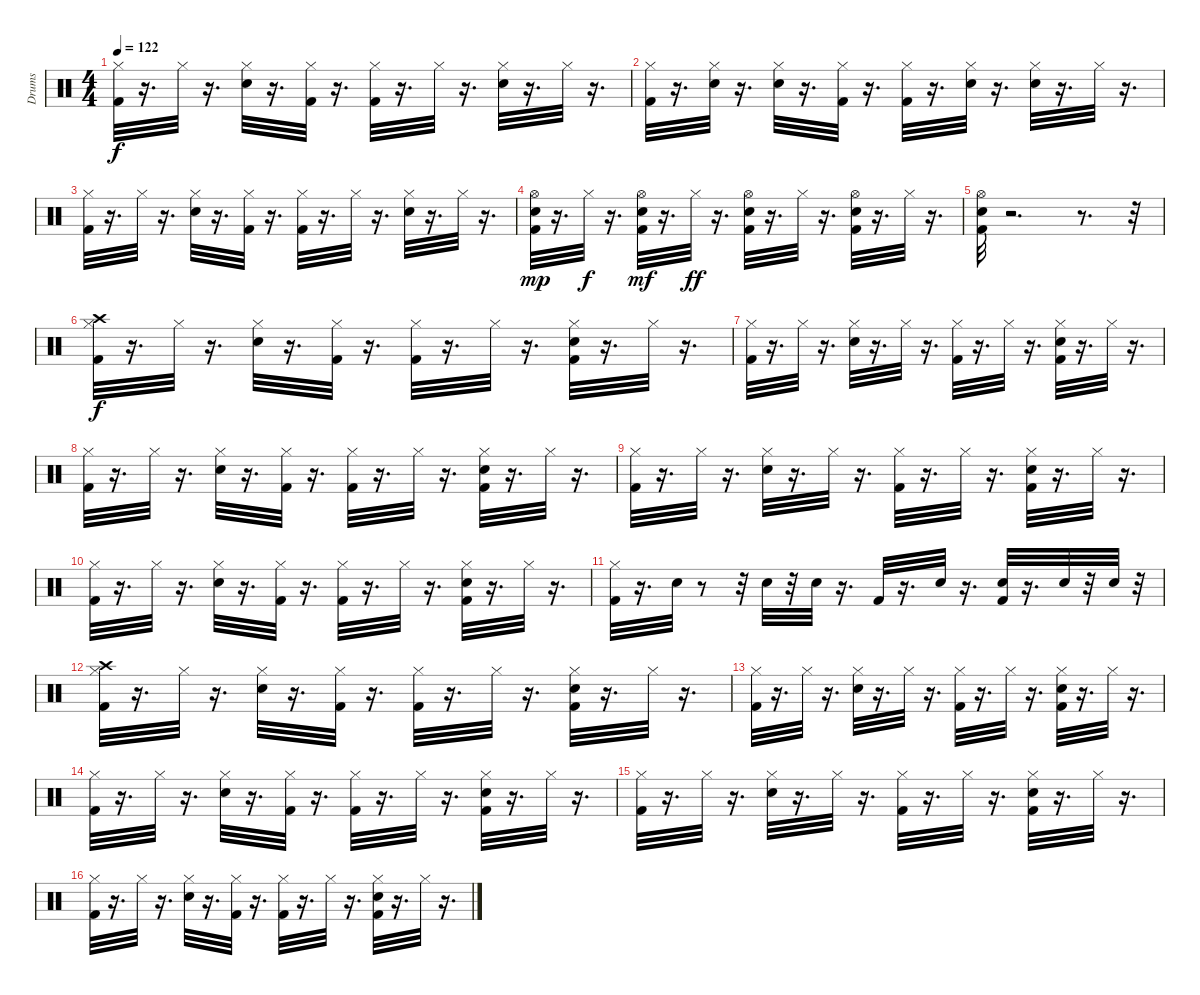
\track ("Drums" "Drums") {instrument percussion}
\staff {score}
\articulation defaults
\ts (4 4)
\tempo 122
\clef neutral
\ks c
("Kick (hit) 2" "Hi-Hat (closed)").32{dy f} r.16{d} "Hi-Hat (closed)".32 r.16{d} ("Snare (hit) 2" "Hi-Hat (closed)").32 r.16{d} ("Kick (hit) 2" "Hi-Hat (closed)").32 r.16{d} ("Kick (hit) 2" "Hi-Hat (closed)").32 r.16{d} "Hi-Hat (closed)".32 r.16{d} ("Snare (hit) 2" "Hi-Hat (closed)").32 r.16{d} "Hi-Hat (closed)".32 r.16{d} |
("Kick (hit) 2" "Hi-Hat (closed)").32 r.16{d} ("Snare (hit) 2" "Hi-Hat (closed)").32 r.16{d} ("Snare (hit) 2" "Hi-Hat (closed)").32 r.16{d} ("Kick (hit) 2" "Hi-Hat (closed)").32 r.16{d} ("Kick (hit) 2" "Hi-Hat (closed)").32 r.16{d} ("Snare (hit) 2" "Hi-Hat (closed)").32 r.16{d} ("Snare (hit) 2" "Hi-Hat (closed)").32 r.16{d} "Hi-Hat (closed)".32 r.16{d} |
("Kick (hit) 2" "Hi-Hat (closed)").32 r.16{d} "Hi-Hat (closed)".32 r.16{d} ("Snare (hit) 2" "Hi-Hat (closed)").32 r.16{d} ("Kick (hit) 2" "Hi-Hat (closed)").32 r.16{d} ("Kick (hit) 2" "Hi-Hat (closed)").32 r.16{d} "Hi-Hat (closed)".32 r.16{d} ("Snare (hit) 2" "Hi-Hat (closed)").32 r.16{d} "Hi-Hat (closed)".32 r.16{d} |
("Kick (hit) 2" "Snare (hit) 2" "Hi-Hat (open)").32{dy mp} r.16{d} "Hi-Hat (closed)".32{dy f} r.16{d} ("Kick (hit) 2" "Snare (hit) 2" "Hi-Hat (open)").32{dy mf} r.16{d} "Hi-Hat (closed)".32{dy ff} r.16{d} ("Kick (hit) 2" "Snare (hit) 2" "Hi-Hat (open)").32 r.16{d} "Hi-Hat (closed)".32 r.16{d} ("Kick (hit) 2" "Snare (hit) 2" "Hi-Hat (open)").32 r.16{d} "Hi-Hat (closed)".32 r.16{d} |
("Kick (hit) 2" "Snare (hit) 2" "Hi-Hat (open)").32 r.2{d} r.8{d} r.32 |
("Kick (hit) 2" "Hi-Hat (closed)" "Crash high (hit)").32{dy f} r.16{d} "Hi-Hat (closed)".32 r.16{d} ("Snare (hit) 2" "Hi-Hat (closed)").32 r.16{d} ("Kick (hit) 2" "Hi-Hat (closed)").32 r.16{d} ("Kick (hit) 2" "Hi-Hat (closed)").32 r.16{d} "Hi-Hat (closed)".32 r.16{d} ("Kick (hit) 2" "Snare (hit) 2" "Hi-Hat (closed)").32 r.16{d} "Hi-Hat (closed)".32 r.16{d} |
("Kick (hit) 2" "Hi-Hat (closed)").32 r.16{d} "Hi-Hat (closed)".32 r.16{d} ("Snare (hit) 2" "Hi-Hat (closed)").32 r.16{d} "Hi-Hat (closed)".32 r.16{d} ("Kick (hit) 2" "Hi-Hat (closed)").32 r.16{d} "Hi-Hat (closed)".32 r.16{d} ("Kick (hit) 2" "Snare (hit) 2" "Hi-Hat (closed)").32 r.16{d} "Hi-Hat (closed)".32 r.16{d} |
("Kick (hit) 2" "Hi-Hat (closed)").32 r.16{d} "Hi-Hat (closed)".32 r.16{d} ("Snare (hit) 2" "Hi-Hat (closed)").32 r.16{d} ("Kick (hit) 2" "Hi-Hat (closed)").32 r.16{d} ("Kick (hit) 2" "Hi-Hat (closed)").32 r.16{d} "Hi-Hat (closed)".32 r.16{d} ("Kick (hit) 2" "Snare (hit) 2" "Hi-Hat (closed)").32 r.16{d} "Hi-Hat (closed)".32 r.16{d} |
("Kick (hit) 2" "Hi-Hat (closed)").32 r.16{d} "Hi-Hat (closed)".32 r.16{d} ("Snare (hit) 2" "Hi-Hat (closed)").32 r.16{d} "Hi-Hat (closed)".32 r.16{d} ("Kick (hit) 2" "Hi-Hat (closed)").32 r.16{d} "Hi-Hat (closed)".32 r.16{d} ("Kick (hit) 2" "Snare (hit) 2" "Hi-Hat (closed)").32 r.16{d} "Hi-Hat (closed)".32 r.16{d} |
("Kick (hit) 2" "Hi-Hat (closed)").32 r.16{d} "Hi-Hat (closed)".32 r.16{d} ("Snare (hit) 2" "Hi-Hat (closed)").32 r.16{d} ("Kick (hit) 2" "Hi-Hat (closed)").32 r.16{d} ("Kick (hit) 2" "Hi-Hat (closed)").32 r.16{d} "Hi-Hat (closed)".32 r.16{d} ("Kick (hit) 2" "Snare (hit) 2" "Hi-Hat (closed)").32 r.16{d} "Hi-Hat (closed)".32 r.16{d} |
("Kick (hit) 2" "Hi-Hat (closed)").32 r.16{d} "Snare (hit) 2".32 r.8 r.32 "Snare (hit) 2".32 r.32 "Snare (hit) 2".32 r.16{d} "Kick (hit) 2".32 r.16{d} "Snare (hit) 2".32 r.16{d} ("Kick (hit) 2" "Snare (hit) 2").32 r.16{d} "Snare (hit) 2".32 r.32 "Snare (hit) 2".32 r.32 |
("Kick (hit) 2" "Hi-Hat (closed)" "Crash high (hit)").32 r.16{d} "Hi-Hat (closed)".32 r.16{d} ("Snare (hit) 2" "Hi-Hat (closed)").32 r.16{d} ("Kick (hit) 2" "Hi-Hat (closed)").32 r.16{d} ("Kick (hit) 2" "Hi-Hat (closed)").32 r.16{d} "Hi-Hat (closed)".32 r.16{d} ("Kick (hit) 2" "Snare (hit) 2" "Hi-Hat (closed)").32 r.16{d} "Hi-Hat (closed)".32 r.16{d} |
("Kick (hit) 2" "Hi-Hat (closed)").32 r.16{d} "Hi-Hat (closed)".32 r.16{d} ("Snare (hit) 2" "Hi-Hat (closed)").32 r.16{d} "Hi-Hat (closed)".32 r.16{d} ("Kick (hit) 2" "Hi-Hat (closed)").32 r.16{d} "Hi-Hat (closed)".32 r.16{d} ("Kick (hit) 2" "Snare (hit) 2" "Hi-Hat (closed)").32 r.16{d} "Hi-Hat (closed)".32 r.16{d} |
("Kick (hit) 2" "Hi-Hat (closed)").32 r.16{d} "Hi-Hat (closed)".32 r.16{d} ("Snare (hit) 2" "Hi-Hat (closed)").32 r.16{d} ("Kick (hit) 2" "Hi-Hat (closed)").32 r.16{d} ("Kick (hit) 2" "Hi-Hat (closed)").32 r.16{d} "Hi-Hat (closed)".32 r.16{d} ("Kick (hit) 2" "Snare (hit) 2" "Hi-Hat (closed)").32 r.16{d} "Hi-Hat (closed)".32 r.16{d} |
("Kick (hit) 2" "Hi-Hat (closed)").32 r.16{d} "Hi-Hat (closed)".32 r.16{d} ("Snare (hit) 2" "Hi-Hat (closed)").32 r.16{d} "Hi-Hat (closed)".32 r.16{d} ("Kick (hit) 2" "Hi-Hat (closed)").32 r.16{d} "Hi-Hat (closed)".32 r.16{d} ("Kick (hit) 2" "Snare (hit) 2" "Hi-Hat (closed)").32 r.16{d} "Hi-Hat (closed)".32 r.16{d} |
("Kick (hit) 2" "Hi-Hat (closed)").32 r.16{d} "Hi-Hat (closed)".32 r.16{d} ("Snare (hit) 2" "Hi-Hat (closed)").32 r.16{d} ("Kick (hit) 2" "Hi-Hat (closed)").32 r.16{d} ("Kick (hit) 2" "Hi-Hat (closed)").32 r.16{d} "Hi-Hat (closed)".32 r.16{d} ("Kick (hit) 2" "Snare (hit) 2" "Hi-Hat (closed)").32 r.16{d} "Hi-Hat (closed)".32 r.16{d}
